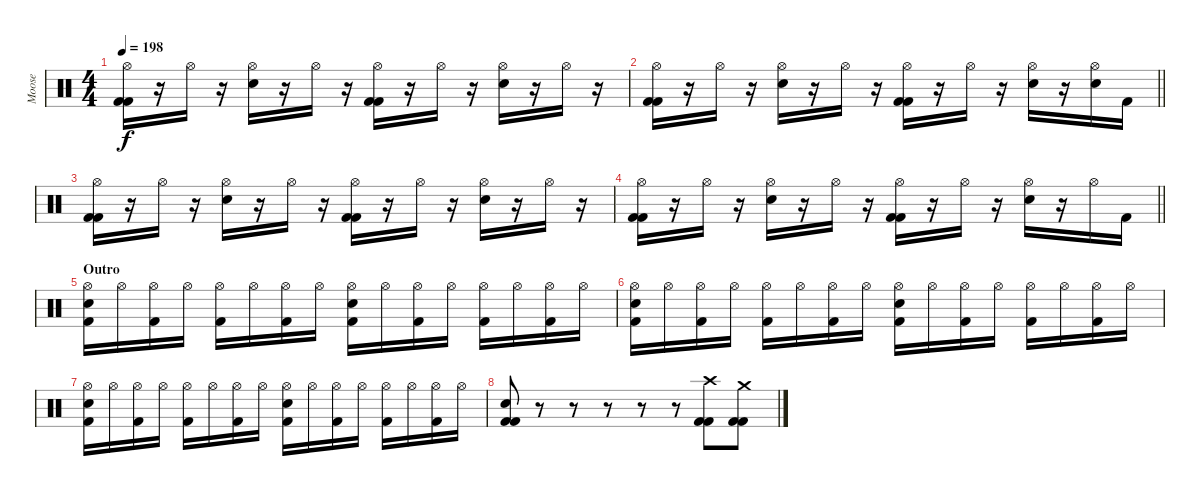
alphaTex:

\track ("Moose" "Moose") {instrument percussion}
\staff {score}
\articulation defaults
\ts (4 4)
\tempo 198
\clef neutral
\ks c
("Hi-Hat (open)" "Kick (hit) 2" "Kick (hit) 2").16{dy f} r.16 "Hi-Hat (open)".16 r.16 ("Hi-Hat (open)" "Electric Snare (hit)").16 r.16 "Hi-Hat (open)".16 r.16 ("Hi-Hat (open)" "Kick (hit) 2" "Kick (hit) 2").16 r.16 "Hi-Hat (open)".16 r.16 ("Hi-Hat (open)" "Electric Snare (hit)").16 r.16 "Hi-Hat (open)".16 r.16 |
\barLineRight lightlight
("Hi-Hat (open)" "Kick (hit) 2" "Kick (hit) 2").16 r.16 "Hi-Hat (open)".16 r.16 ("Hi-Hat (open)" "Electric Snare (hit)").16 r.16 "Hi-Hat (open)".16 r.16 ("Hi-Hat (open)" "Kick (hit) 2" "Kick (hit) 2").16 r.16 "Hi-Hat (open)".16 r.16 ("Hi-Hat (open)" "Electric Snare (hit)").16 r.16 ("Hi-Hat (open)" "Electric Snare (hit)").16 "Kick (hit) 2".16 |
("Hi-Hat (open)" "Kick (hit) 2" "Kick (hit) 2").16 r.16 "Hi-Hat (open)".16 r.16 ("Hi-Hat (open)" "Electric Snare (hit)").16 r.16 "Hi-Hat (open)".16 r.16 ("Hi-Hat (open)" "Kick (hit) 2" "Kick (hit) 2").16 r.16 "Hi-Hat (open)".16 r.16 ("Hi-Hat (open)" "Electric Snare (hit)").16 r.16 "Hi-Hat (open)".16 r.16 |
\barLineRight lightlight
("Hi-Hat (open)" "Kick (hit) 2" "Kick (hit) 2").16 r.16 "Hi-Hat (open)".16 r.16 ("Hi-Hat (open)" "Electric Snare (hit)").16 r.16 "Hi-Hat (open)".16 r.16 ("Hi-Hat (open)" "Kick (hit) 2" "Kick (hit) 2").16 r.16 "Hi-Hat (open)".16 r.16 ("Hi-Hat (open)" "Electric Snare (hit)").16 r.16 "Hi-Hat (open)".16 "Kick (hit) 2".16 |
\section ("" "Outro")
("Hi-Hat (open)" "Electric Snare (hit)" "Kick (hit) 2").16 "Hi-Hat (open)".16 ("Hi-Hat (open)" "Kick (hit) 2").16 "Hi-Hat (open)".16 ("Hi-Hat (open)" "Kick (hit) 2").16 "Hi-Hat (open)".16 ("Hi-Hat (open)" "Kick (hit) 2").16 "Hi-Hat (open)".16 ("Hi-Hat (open)" "Electric Snare (hit)" "Kick (hit) 2").16 "Hi-Hat (open)".16 ("Hi-Hat (open)" "Kick (hit) 2").16 "Hi-Hat (open)".16 ("Hi-Hat (open)" "Kick (hit) 2").16 "Hi-Hat (open)".16 ("Hi-Hat (open)" "Kick (hit) 2").16 "Hi-Hat (open)".16 |
("Hi-Hat (open)" "Electric Snare (hit)" "Kick (hit) 2").16 "Hi-Hat (open)".16 ("Hi-Hat (open)" "Kick (hit) 2").16 "Hi-Hat (open)".16 ("Hi-Hat (open)" "Kick (hit) 2").16 "Hi-Hat (open)".16 ("Hi-Hat (open)" "Kick (hit) 2").16 "Hi-Hat (open)".16 ("Hi-Hat (open)" "Electric Snare (hit)" "Kick (hit) 2").16 "Hi-Hat (open)".16 ("Hi-Hat (open)" "Kick (hit) 2").16 "Hi-Hat (open)".16 ("Hi-Hat (open)" "Kick (hit) 2").16 "Hi-Hat (open)".16 ("Hi-Hat (open)" "Kick (hit) 2").16 "Hi-Hat (open)".16 |
("Hi-Hat (open)" "Electric Snare (hit)" "Kick (hit) 2").16 "Hi-Hat (open)".16 ("Hi-Hat (open)" "Kick (hit) 2").16 "Hi-Hat (open)".16 ("Hi-Hat (open)" "Kick (hit) 2").16 "Hi-Hat (open)".16 ("Hi-Hat (open)" "Kick (hit) 2").16 "Hi-Hat (open)".16 ("Hi-Hat (open)" "Electric Snare (hit)" "Kick (hit) 2").16 "Hi-Hat (open)".16 ("Hi-Hat (open)" "Kick (hit) 2").16 "Hi-Hat (open)".16 ("Hi-Hat (open)" "Kick (hit) 2").16 "Hi-Hat (open)".16 ("Hi-Hat (open)" "Kick (hit) 2").16 "Hi-Hat (open)".16 |
("Electric Snare (hit)" "Kick (hit) 2" "Kick (hit) 2").8 r.8 r.8 r.8 r.8 r.8 ("Crash high (hit)" "Kick (hit) 2" "Kick (hit) 2").8 ("Crash medium (hit)" "Kick (hit) 2" "Kick (hit) 2").8
